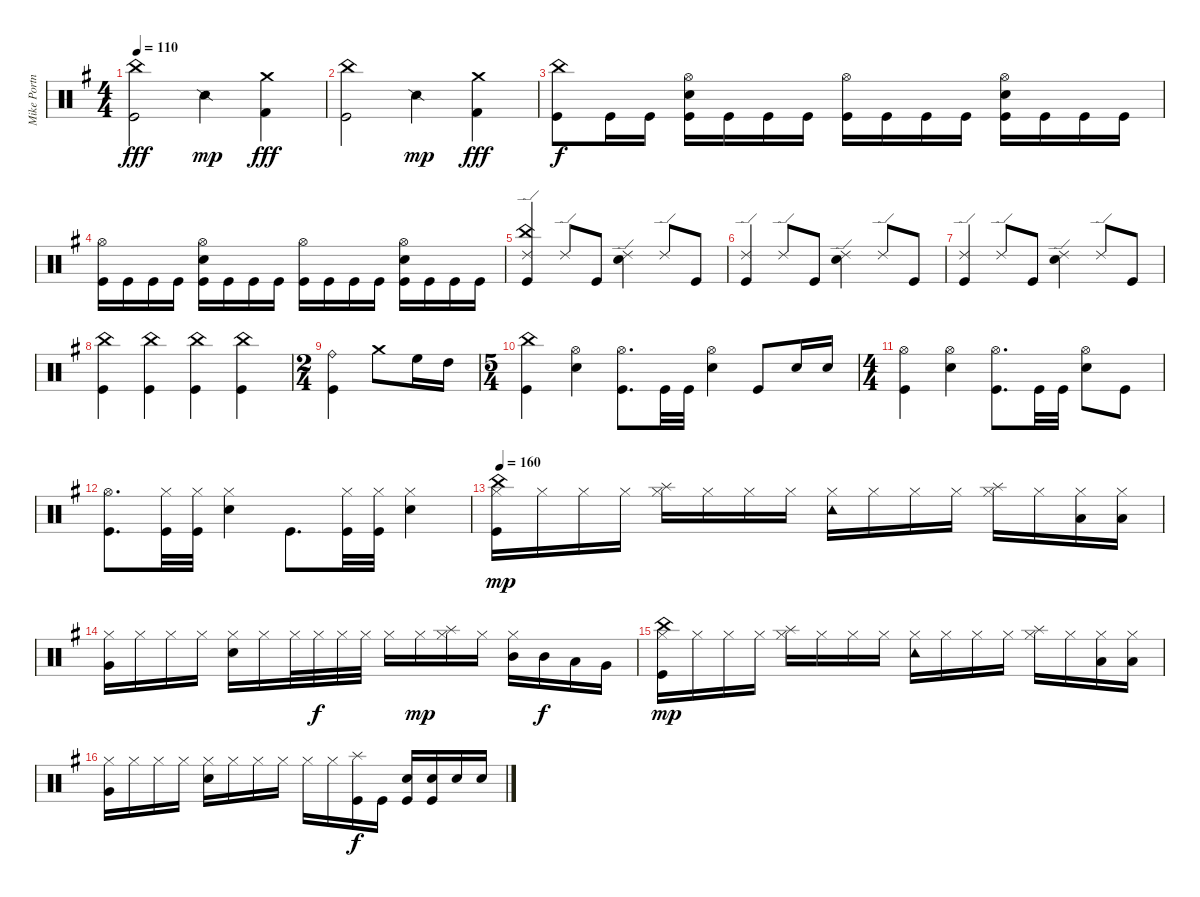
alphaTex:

\track ("Mike Portnoy - Drums" "Mike Portn") {instrument percussion}
\staff {score}
\articulation defaults
\ts (4 4)
\tempo 110
\clef neutral
\ks g
("Kick (hit)" "China (hit)").2{dy fff} "Snare (side stick) 2".4{dy mp} ("Crash medium (hit)" "Kick (hit) 2").4{dy fff} |
("Kick (hit)" "China (hit)").2 "Snare (side stick) 2".4{dy mp} ("Crash medium (hit)" "Kick (hit) 2").4{dy fff} |
("Kick (hit)" "China (hit)").8{dy f} "Kick (hit)".16 "Kick (hit)".16 ("Kick (hit)" "Snare (hit) 2" "Hi-Hat (open)").16 "Kick (hit)".16 "Kick (hit)".16 "Kick (hit)".16 ("Kick (hit)" "Hi-Hat (open)").16 "Kick (hit)".16 "Kick (hit)".16 "Kick (hit)".16 ("Kick (hit)" "Snare (hit) 2" "Hi-Hat (open)").16 "Kick (hit)".16 "Kick (hit)".16 "Kick (hit)".16 |
("Kick (hit)" "Hi-Hat (open)").16 "Kick (hit)".16 "Kick (hit)".16 "Kick (hit)".16 ("Kick (hit)" "Snare (hit) 2" "Hi-Hat (open)").16 "Kick (hit)".16 "Kick (hit)".16 "Kick (hit)".16 ("Kick (hit)" "Hi-Hat (open)").16 "Kick (hit)".16 "Kick (hit)".16 "Kick (hit)".16 ("Kick (hit)" "Snare (hit) 2" "Hi-Hat (open)").16 "Kick (hit)".16 "Kick (hit)".16 "Kick (hit)".16 |
("Kick (hit)" "China (hit)" "Ride (edge) 2").4 "Ride (edge) 2".8 "Kick (hit)".8 ("Snare (hit) 2" "Ride (edge) 2").4 "Ride (edge) 2".8 "Kick (hit)".8 |
("Kick (hit)" "Ride (edge) 2").4 "Ride (edge) 2".8 "Kick (hit)".8 ("Snare (hit) 2" "Ride (edge) 2").4 "Ride (edge) 2".8 "Kick (hit)".8 |
("Kick (hit)" "Ride (edge) 2").4 "Ride (edge) 2".8 "Kick (hit)".8 ("Snare (hit) 2" "Ride (edge) 2").4 "Ride (edge) 2".8 "Kick (hit)".8 |
("Kick (hit)" "China (hit)").4 ("Kick (hit)" "China (hit)").4 ("Kick (hit)" "China (hit)").4 ("Kick (hit)" "China (hit)").4 |
\ts (2 4)
("Kick (hit)" "Ride (bell)").4 "Crash medium (hit)".8 "High Floor Tom (hit)".16 "High Tom (hit)".16 |
\ts (5 4)
("Kick (hit)" "China (hit)").4 ("Snare (hit) 2" "Hi-Hat (open)").4 ("Kick (hit)" "Hi-Hat (open)").8{d} "Kick (hit)".32 "Kick (hit)".32 ("Snare (hit) 2" "Hi-Hat (open)").4 "Kick (hit)".8 "Snare (hit) 2".16 "Snare (hit) 2".16 |
\ts (4 4)
("Kick (hit)" "Hi-Hat (open)").4 ("Snare (hit) 2" "Hi-Hat (open)").4 ("Kick (hit)" "Hi-Hat (open)").8{d} "Kick (hit)".32 "Kick (hit)".32 ("Snare (hit) 2" "Hi-Hat (open)").8 "Kick (hit)".8 |
("Kick (hit)" "Hi-Hat (open)").8{d} ("Kick (hit)" "Hi-Hat (closed)").32 ("Kick (hit)" "Hi-Hat (closed)").32 ("Snare (hit) 2" "Hi-Hat (closed)").4 "Kick (hit)".8{d} ("Kick (hit)" "Hi-Hat (closed)").32 ("Kick (hit)" "Hi-Hat (closed)").32 ("Snare (hit) 2" "Hi-Hat (closed)").4 |
\tempo 160
("Hi-Hat (closed)" "Kick (hit)" "China (hit)").16{dy mp} "Hi-Hat (closed)".16 "Hi-Hat (closed)".16 "Hi-Hat (closed)".16 ("Hi-Hat (closed)" "Splash (hit)").16 "Hi-Hat (closed)".16 "Hi-Hat (closed)".16 "Hi-Hat (closed)".16 ("Hi-Hat (closed)" "Tambourine (hit)").16 "Hi-Hat (closed)".16 "Hi-Hat (closed)".16 "Hi-Hat (closed)".16 ("Hi-Hat (closed)" "Splash (hit)").16 "Hi-Hat (closed)".16 ("Hi-Hat (closed)" "Low Tom (hit)").16 ("Hi-Hat (closed)" "Low Tom (hit)").16 |
("Hi-Hat (closed)" "Very Low Tom (hit)").16 "Hi-Hat (closed)".16 "Hi-Hat (closed)".16 "Hi-Hat (closed)".16 ("Hi-Hat (closed)" "Snare (hit) 2").16 "Hi-Hat (closed)".16 "Hi-Hat (closed)".32 "Hi-Hat (closed)".32{dy f} "Hi-Hat (closed)".32 "Hi-Hat (closed)".32 "Hi-Hat (closed)".16 "Hi-Hat (closed)".16{dy mp} ("Hi-Hat (closed)" "Splash (hit)").16 "Hi-Hat (closed)".16 ("Hi-Hat (closed)" "Mid Tom (hit)").16 "Mid Tom (hit)".16{dy f} "Low Tom (hit)".16 "Very Low Tom (hit)".16 |
("Hi-Hat (closed)" "Kick (hit)" "China (hit)").16{dy mp} "Hi-Hat (closed)".16 "Hi-Hat (closed)".16 "Hi-Hat (closed)".16 ("Hi-Hat (closed)" "Splash (hit)").16 "Hi-Hat (closed)".16 "Hi-Hat (closed)".16 "Hi-Hat (closed)".16 ("Hi-Hat (closed)" "Tambourine (hit)").16 "Hi-Hat (closed)".16 "Hi-Hat (closed)".16 "Hi-Hat (closed)".16 ("Hi-Hat (closed)" "Splash (hit)").16 "Hi-Hat (closed)".16 ("Hi-Hat (closed)" "Low Tom (hit)").16 ("Hi-Hat (closed)" "Low Tom (hit)").16 |
("Hi-Hat (closed)" "Very Low Tom (hit)").16 "Hi-Hat (closed)".16 "Hi-Hat (closed)".16 "Hi-Hat (closed)".16 ("Hi-Hat (closed)" "Snare (hit) 2").16 "Hi-Hat (closed)".16 "Hi-Hat (closed)".16 "Hi-Hat (closed)".16 "Hi-Hat (closed)".16 "Hi-Hat (closed)".16 ("Kick (hit)" "Splash (hit)").16{dy f} "Kick (hit)".16 ("Kick (hit)" "Snare (hit) 2").16 ("Kick (hit)" "Snare (hit) 2").16 "Snare (hit) 2".16 "Snare (hit) 2".16
